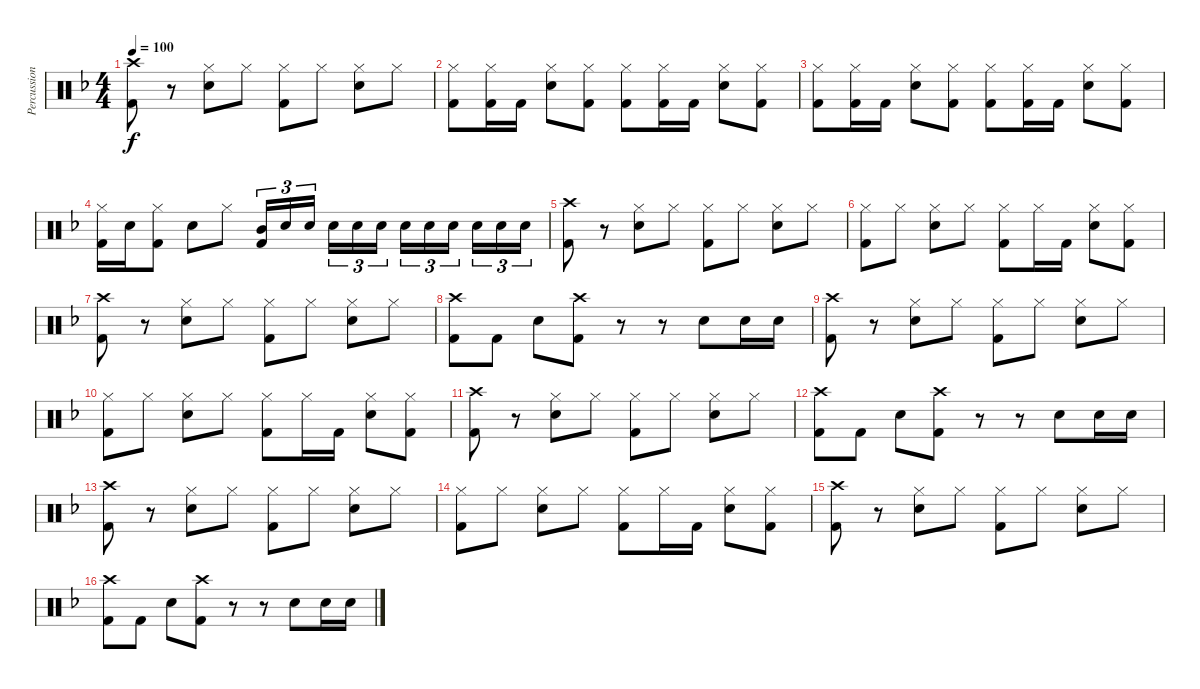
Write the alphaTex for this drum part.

\track ("Percussion" "Percussion") {instrument percussion}
\staff {score}
\articulation defaults
\ts (4 4)
\tempo 100
\clef neutral
\ks dminor
("Crash high (hit)" "Kick (hit) 2").8{dy f} r.8 ("Hi-Hat (closed)" "Snare (hit) 2").8 "Hi-Hat (closed)".8 ("Hi-Hat (closed)" "Kick (hit) 2").8 "Hi-Hat (closed)".8 ("Hi-Hat (closed)" "Snare (hit) 2").8 "Hi-Hat (closed)".8 |
("Hi-Hat (closed)" "Kick (hit) 2").8 ("Hi-Hat (closed)" "Kick (hit) 2").16 "Kick (hit) 2".16 ("Hi-Hat (closed)" "Snare (hit) 2").8 ("Hi-Hat (closed)" "Kick (hit) 2").8 ("Hi-Hat (closed)" "Kick (hit) 2").8 ("Hi-Hat (closed)" "Kick (hit) 2").16 "Kick (hit) 2".16 ("Hi-Hat (closed)" "Snare (hit) 2").8 ("Hi-Hat (closed)" "Kick (hit) 2").8 |
("Hi-Hat (closed)" "Kick (hit) 2").8 ("Hi-Hat (closed)" "Kick (hit) 2").16 "Kick (hit) 2".16 ("Hi-Hat (closed)" "Snare (hit) 2").8 ("Hi-Hat (closed)" "Kick (hit) 2").8 ("Hi-Hat (closed)" "Kick (hit) 2").8 ("Hi-Hat (closed)" "Kick (hit) 2").16 "Kick (hit) 2".16 ("Hi-Hat (closed)" "Snare (hit) 2").8 ("Hi-Hat (closed)" "Kick (hit) 2").8 |
("Hi-Hat (closed)" "Kick (hit) 2").16 "Snare (hit) 2".16 ("Hi-Hat (closed)" "Kick (hit) 2").8 "Snare (hit) 2".8 "Hi-Hat (closed)".8 ("Mid Tom (hit)" "Kick (hit) 2").16{tu (3 2)} "Snare (hit) 2".16{tu (3 2)} "Snare (hit) 2".16{tu (3 2) beam splitsecondary} "Snare (hit) 2".16{tu (3 2)} "Snare (hit) 2".16{tu (3 2)} "Snare (hit) 2".16{tu (3 2)} "Snare (hit) 2".16{tu (3 2)} "Snare (hit) 2".16{tu (3 2)} "Snare (hit) 2".16{tu (3 2) beam splitsecondary} "Snare (hit) 2".16{tu (3 2)} "Snare (hit) 2".16{tu (3 2)} "Snare (hit) 2".16{tu (3 2)} |
("Crash high (hit)" "Kick (hit) 2").8 r.8 ("Hi-Hat (closed)" "Snare (hit) 2").8 "Hi-Hat (closed)".8 ("Hi-Hat (closed)" "Kick (hit) 2").8 "Hi-Hat (closed)".8 ("Hi-Hat (closed)" "Snare (hit) 2").8 "Hi-Hat (closed)".8 |
("Hi-Hat (closed)" "Kick (hit) 2").8 "Hi-Hat (closed)".8 ("Hi-Hat (closed)" "Snare (hit) 2").8 "Hi-Hat (closed)".8 ("Hi-Hat (closed)" "Kick (hit) 2").8 "Hi-Hat (closed)".16 "Kick (hit) 2".16 ("Hi-Hat (closed)" "Snare (hit) 2").8 ("Hi-Hat (closed)" "Kick (hit) 2").8 |
("Crash high (hit)" "Kick (hit) 2").8 r.8 ("Hi-Hat (closed)" "Snare (hit) 2").8 "Hi-Hat (closed)".8 ("Hi-Hat (closed)" "Kick (hit) 2").8 "Hi-Hat (closed)".8 ("Hi-Hat (closed)" "Snare (hit) 2").8 "Hi-Hat (closed)".8 |
("Crash high (hit)" "Kick (hit) 2").8 "Kick (hit) 2".8 "Snare (hit) 2".8 ("Crash high (hit)" "Kick (hit) 2").8 r.8 r.8 "Snare (hit) 2".8 "Snare (hit) 2".16 "Snare (hit) 2".16 |
("Crash high (hit)" "Kick (hit) 2").8 r.8 ("Hi-Hat (closed)" "Snare (hit) 2").8 "Hi-Hat (closed)".8 ("Hi-Hat (closed)" "Kick (hit) 2").8 "Hi-Hat (closed)".8 ("Hi-Hat (closed)" "Snare (hit) 2").8 "Hi-Hat (closed)".8 |
("Hi-Hat (closed)" "Kick (hit) 2").8 "Hi-Hat (closed)".8 ("Hi-Hat (closed)" "Snare (hit) 2").8 "Hi-Hat (closed)".8 ("Hi-Hat (closed)" "Kick (hit) 2").8 "Hi-Hat (closed)".16 "Kick (hit) 2".16 ("Hi-Hat (closed)" "Snare (hit) 2").8 ("Hi-Hat (closed)" "Kick (hit) 2").8 |
("Crash high (hit)" "Kick (hit) 2").8 r.8 ("Hi-Hat (closed)" "Snare (hit) 2").8 "Hi-Hat (closed)".8 ("Hi-Hat (closed)" "Kick (hit) 2").8 "Hi-Hat (closed)".8 ("Hi-Hat (closed)" "Snare (hit) 2").8 "Hi-Hat (closed)".8 |
("Crash high (hit)" "Kick (hit) 2").8 "Kick (hit) 2".8 "Snare (hit) 2".8 ("Crash high (hit)" "Kick (hit) 2").8 r.8 r.8 "Snare (hit) 2".8 "Snare (hit) 2".16 "Snare (hit) 2".16 |
("Crash high (hit)" "Kick (hit) 2").8 r.8 ("Hi-Hat (closed)" "Snare (hit) 2").8 "Hi-Hat (closed)".8 ("Hi-Hat (closed)" "Kick (hit) 2").8 "Hi-Hat (closed)".8 ("Hi-Hat (closed)" "Snare (hit) 2").8 "Hi-Hat (closed)".8 |
("Hi-Hat (closed)" "Kick (hit) 2").8 "Hi-Hat (closed)".8 ("Hi-Hat (closed)" "Snare (hit) 2").8 "Hi-Hat (closed)".8 ("Hi-Hat (closed)" "Kick (hit) 2").8 "Hi-Hat (closed)".16 "Kick (hit) 2".16 ("Hi-Hat (closed)" "Snare (hit) 2").8 ("Hi-Hat (closed)" "Kick (hit) 2").8 |
("Crash high (hit)" "Kick (hit) 2").8 r.8 ("Hi-Hat (closed)" "Snare (hit) 2").8 "Hi-Hat (closed)".8 ("Hi-Hat (closed)" "Kick (hit) 2").8 "Hi-Hat (closed)".8 ("Hi-Hat (closed)" "Snare (hit) 2").8 "Hi-Hat (closed)".8 |
("Crash high (hit)" "Kick (hit) 2").8 "Kick (hit) 2".8 "Snare (hit) 2".8 ("Crash high (hit)" "Kick (hit) 2").8 r.8 r.8 "Snare (hit) 2".8 "Snare (hit) 2".16 "Snare (hit) 2".16
